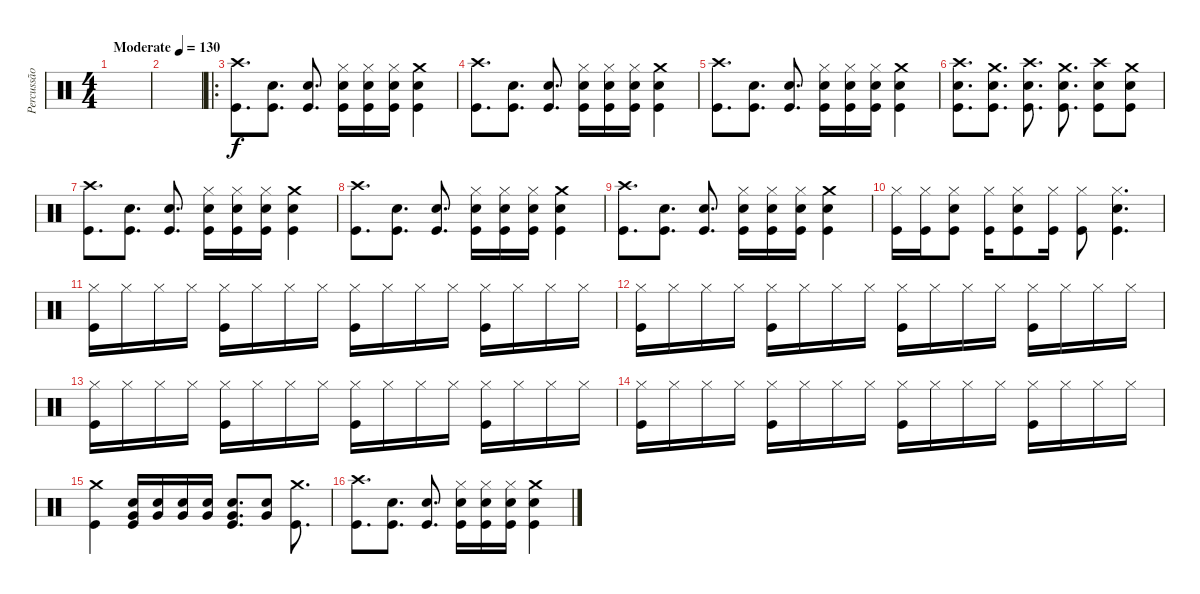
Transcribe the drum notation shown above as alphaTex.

\track ("Percussão" "Percussão") {instrument percussion}
\staff {score}
\articulation defaults
\ts (4 4)
\tempo (130 "Moderate")
\clef neutral
\ks c
|
|
\ro
("Crash high (hit)" "Kick (hit)").8{d} ("Kick (hit)" "Snare (hit) 2").8{d} ("Kick (hit)" "Snare (hit) 2").8{d} ("Kick (hit)" "Snare (hit) 2" "Hi-Hat (closed)").16 ("Kick (hit)" "Snare (hit) 2" "Hi-Hat (closed)").16 ("Kick (hit)" "Snare (hit) 2" "Hi-Hat (closed)").16 ("Crash medium (hit)" "Kick (hit)" "Snare (hit) 2").4 |
("Crash high (hit)" "Kick (hit)").8{d} ("Kick (hit)" "Snare (hit) 2").8{d} ("Kick (hit)" "Snare (hit) 2").8{d} ("Kick (hit)" "Snare (hit) 2" "Hi-Hat (closed)").16 ("Kick (hit)" "Snare (hit) 2" "Hi-Hat (closed)").16 ("Kick (hit)" "Snare (hit) 2" "Hi-Hat (closed)").16 ("Crash medium (hit)" "Kick (hit)" "Snare (hit) 2").4 |
("Crash high (hit)" "Kick (hit)").8{d} ("Kick (hit)" "Snare (hit) 2").8{d} ("Kick (hit)" "Snare (hit) 2").8{d} ("Kick (hit)" "Snare (hit) 2" "Hi-Hat (closed)").16 ("Kick (hit)" "Snare (hit) 2" "Hi-Hat (closed)").16 ("Kick (hit)" "Snare (hit) 2" "Hi-Hat (closed)").16 ("Crash medium (hit)" "Kick (hit)" "Snare (hit) 2").4 |
("Crash high (hit)" "Snare (hit) 2" "Kick (hit)").8{d} ("Crash medium (hit)" "Snare (hit) 2" "Kick (hit)").8{d} ("Crash high (hit)" "Snare (hit) 2" "Kick (hit)").8{d} ("Crash medium (hit)" "Snare (hit) 2" "Kick (hit)").8{d} ("Crash high (hit)" "Snare (hit) 2" "Kick (hit)").8 ("Crash medium (hit)" "Snare (hit) 2" "Kick (hit)").8 |
("Crash high (hit)" "Kick (hit)").8{d} ("Kick (hit)" "Snare (hit) 2").8{d} ("Kick (hit)" "Snare (hit) 2").8{d} ("Kick (hit)" "Snare (hit) 2" "Hi-Hat (closed)").16 ("Kick (hit)" "Snare (hit) 2" "Hi-Hat (closed)").16 ("Kick (hit)" "Snare (hit) 2" "Hi-Hat (closed)").16 ("Crash medium (hit)" "Kick (hit)" "Snare (hit) 2").4 |
("Crash high (hit)" "Kick (hit)").8{d} ("Kick (hit)" "Snare (hit) 2").8{d} ("Kick (hit)" "Snare (hit) 2").8{d} ("Kick (hit)" "Snare (hit) 2" "Hi-Hat (closed)").16 ("Kick (hit)" "Snare (hit) 2" "Hi-Hat (closed)").16 ("Kick (hit)" "Snare (hit) 2" "Hi-Hat (closed)").16 ("Crash medium (hit)" "Kick (hit)" "Snare (hit) 2").4 |
("Crash high (hit)" "Kick (hit)").8{d} ("Kick (hit)" "Snare (hit) 2").8{d} ("Kick (hit)" "Snare (hit) 2").8{d} ("Kick (hit)" "Snare (hit) 2" "Hi-Hat (closed)").16 ("Kick (hit)" "Snare (hit) 2" "Hi-Hat (closed)").16 ("Kick (hit)" "Snare (hit) 2" "Hi-Hat (closed)").16 ("Crash medium (hit)" "Kick (hit)" "Snare (hit) 2").4 |
("Hi-Hat (closed)" "Kick (hit)").16 ("Hi-Hat (closed)" "Kick (hit)").16 ("Hi-Hat (closed)" "Snare (hit) 2" "Kick (hit)").8 ("Hi-Hat (closed)" "Kick (hit)").16 ("Hi-Hat (closed)" "Snare (hit) 2" "Kick (hit)").8 ("Hi-Hat (closed)" "Kick (hit)").16 ("Hi-Hat (closed)" "Kick (hit)").8 ("Hi-Hat (closed)" "Snare (hit) 2" "Kick (hit)").4{d} |
("Hi-Hat (closed)" "Kick (hit)").16 "Hi-Hat (closed)".16 "Hi-Hat (closed)".16 "Hi-Hat (closed)".16 ("Hi-Hat (closed)" "Kick (hit)").16 "Hi-Hat (closed)".16 "Hi-Hat (closed)".16 "Hi-Hat (closed)".16 ("Hi-Hat (closed)" "Kick (hit)").16 "Hi-Hat (closed)".16 "Hi-Hat (closed)".16 "Hi-Hat (closed)".16 ("Hi-Hat (closed)" "Kick (hit)").16 "Hi-Hat (closed)".16 "Hi-Hat (closed)".16 "Hi-Hat (closed)".16 |
("Hi-Hat (closed)" "Kick (hit)").16 "Hi-Hat (closed)".16 "Hi-Hat (closed)".16 "Hi-Hat (closed)".16 ("Hi-Hat (closed)" "Kick (hit)").16 "Hi-Hat (closed)".16 "Hi-Hat (closed)".16 "Hi-Hat (closed)".16 ("Hi-Hat (closed)" "Kick (hit)").16 "Hi-Hat (closed)".16 "Hi-Hat (closed)".16 "Hi-Hat (closed)".16 ("Hi-Hat (closed)" "Kick (hit)").16 "Hi-Hat (closed)".16 "Hi-Hat (closed)".16 "Hi-Hat (closed)".16 |
("Hi-Hat (closed)" "Kick (hit)").16 "Hi-Hat (closed)".16 "Hi-Hat (closed)".16 "Hi-Hat (closed)".16 ("Hi-Hat (closed)" "Kick (hit)").16 "Hi-Hat (closed)".16 "Hi-Hat (closed)".16 "Hi-Hat (closed)".16 ("Hi-Hat (closed)" "Kick (hit)").16 "Hi-Hat (closed)".16 "Hi-Hat (closed)".16 "Hi-Hat (closed)".16 ("Hi-Hat (closed)" "Kick (hit)").16 "Hi-Hat (closed)".16 "Hi-Hat (closed)".16 "Hi-Hat (closed)".16 |
("Hi-Hat (closed)" "Kick (hit)").16 "Hi-Hat (closed)".16 "Hi-Hat (closed)".16 "Hi-Hat (closed)".16 ("Hi-Hat (closed)" "Kick (hit)").16 "Hi-Hat (closed)".16 "Hi-Hat (closed)".16 "Hi-Hat (closed)".16 ("Hi-Hat (closed)" "Kick (hit)").16 "Hi-Hat (closed)".16 "Hi-Hat (closed)".16 "Hi-Hat (closed)".16 ("Hi-Hat (closed)" "Kick (hit)").16 "Hi-Hat (closed)".16 "Hi-Hat (closed)".16 "Hi-Hat (closed)".16 |
("Crash medium (hit)" "Kick (hit)").4 ("Snare (hit) 2" "Kick (hit)" "Very Low Tom (hit)").16 ("Snare (hit) 2" "Very Low Tom (hit)").16 ("Snare (hit) 2" "Very Low Tom (hit)").16 ("Snare (hit) 2" "Very Low Tom (hit)").16 ("Snare (hit) 2" "Kick (hit)" "Very Low Tom (hit)").8{d} ("Snare (hit) 2" "Very Low Tom (hit)").8 ("Crash medium (hit)" "Kick (hit)").8{d} |
("Crash high (hit)" "Kick (hit)").8{d} ("Kick (hit)" "Snare (hit) 2").8{d} ("Kick (hit)" "Snare (hit) 2").8{d} ("Kick (hit)" "Snare (hit) 2" "Hi-Hat (closed)").16 ("Kick (hit)" "Snare (hit) 2" "Hi-Hat (closed)").16 ("Kick (hit)" "Snare (hit) 2" "Hi-Hat (closed)").16 ("Crash medium (hit)" "Kick (hit)" "Snare (hit) 2").4
